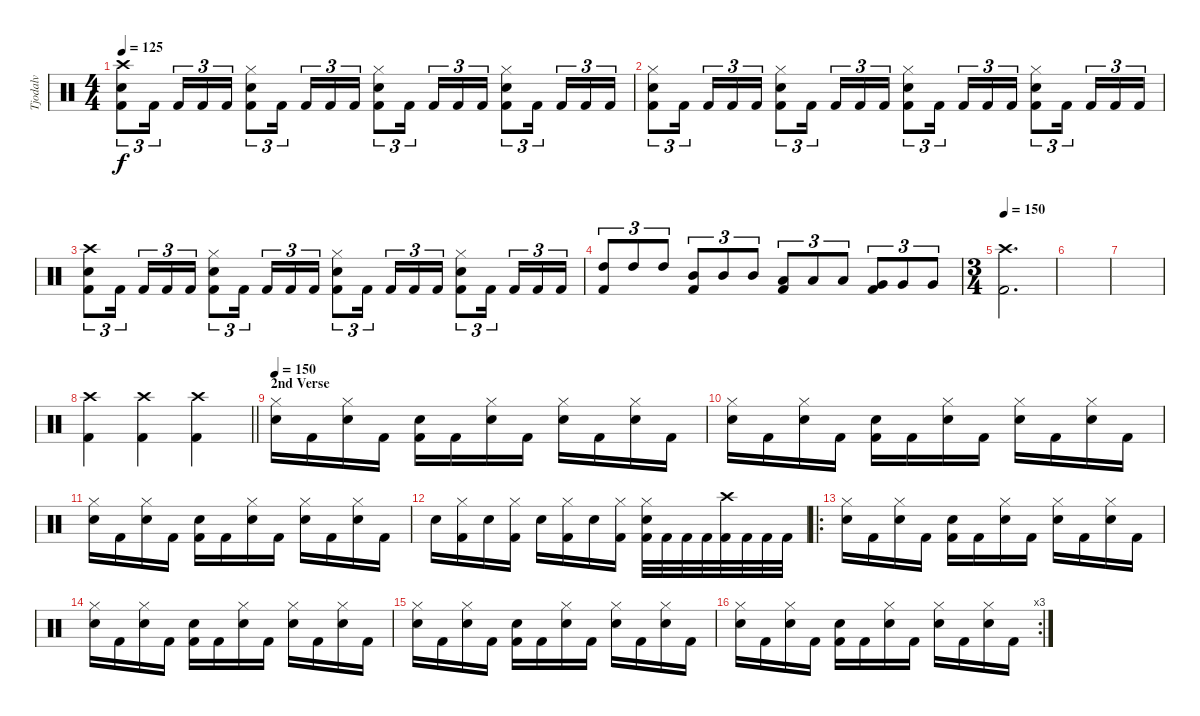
\track ("Tjodalv" "Tjodalv") {instrument percussion}
\staff {score}
\articulation defaults
\ts (4 4)
\tempo 125
\clef neutral
\ks c
("Snare (hit) 2" "Kick (hit) 2" "Crash high (hit)").8{tu (3 2) dy f} "Kick (hit) 2".16{tu (3 2)} "Kick (hit) 2".16{tu (3 2)} "Kick (hit) 2".16{tu (3 2)} "Kick (hit) 2".16{tu (3 2)} ("Snare (hit) 2" "Kick (hit) 2" "Hi-Hat (closed)").8{tu (3 2)} "Kick (hit) 2".16{tu (3 2)} "Kick (hit) 2".16{tu (3 2)} "Kick (hit) 2".16{tu (3 2)} "Kick (hit) 2".16{tu (3 2)} ("Snare (hit) 2" "Kick (hit) 2" "Hi-Hat (closed)").8{tu (3 2)} "Kick (hit) 2".16{tu (3 2)} "Kick (hit) 2".16{tu (3 2)} "Kick (hit) 2".16{tu (3 2)} "Kick (hit) 2".16{tu (3 2)} ("Snare (hit) 2" "Kick (hit) 2" "Hi-Hat (closed)").8{tu (3 2)} "Kick (hit) 2".16{tu (3 2)} "Kick (hit) 2".16{tu (3 2)} "Kick (hit) 2".16{tu (3 2)} "Kick (hit) 2".16{tu (3 2)} |
("Snare (hit) 2" "Kick (hit) 2" "Hi-Hat (closed)").8{tu (3 2)} "Kick (hit) 2".16{tu (3 2)} "Kick (hit) 2".16{tu (3 2)} "Kick (hit) 2".16{tu (3 2)} "Kick (hit) 2".16{tu (3 2)} ("Snare (hit) 2" "Kick (hit) 2" "Hi-Hat (closed)").8{tu (3 2)} "Kick (hit) 2".16{tu (3 2)} "Kick (hit) 2".16{tu (3 2)} "Kick (hit) 2".16{tu (3 2)} "Kick (hit) 2".16{tu (3 2)} ("Snare (hit) 2" "Kick (hit) 2" "Hi-Hat (closed)").8{tu (3 2)} "Kick (hit) 2".16{tu (3 2)} "Kick (hit) 2".16{tu (3 2)} "Kick (hit) 2".16{tu (3 2)} "Kick (hit) 2".16{tu (3 2)} ("Snare (hit) 2" "Kick (hit) 2" "Hi-Hat (closed)").8{tu (3 2)} "Kick (hit) 2".16{tu (3 2)} "Kick (hit) 2".16{tu (3 2)} "Kick (hit) 2".16{tu (3 2)} "Kick (hit) 2".16{tu (3 2)} |
("Snare (hit) 2" "Kick (hit) 2" "Crash high (hit)").8{tu (3 2)} "Kick (hit) 2".16{tu (3 2)} "Kick (hit) 2".16{tu (3 2)} "Kick (hit) 2".16{tu (3 2)} "Kick (hit) 2".16{tu (3 2)} ("Snare (hit) 2" "Kick (hit) 2" "Hi-Hat (closed)").8{tu (3 2)} "Kick (hit) 2".16{tu (3 2)} "Kick (hit) 2".16{tu (3 2)} "Kick (hit) 2".16{tu (3 2)} "Kick (hit) 2".16{tu (3 2)} ("Snare (hit) 2" "Kick (hit) 2" "Hi-Hat (closed)").8{tu (3 2)} "Kick (hit) 2".16{tu (3 2)} "Kick (hit) 2".16{tu (3 2)} "Kick (hit) 2".16{tu (3 2)} "Kick (hit) 2".16{tu (3 2)} ("Snare (hit) 2" "Kick (hit) 2" "Hi-Hat (closed)").8{tu (3 2)} "Kick (hit) 2".16{tu (3 2)} "Kick (hit) 2".16{tu (3 2)} "Kick (hit) 2".16{tu (3 2)} "Kick (hit) 2".16{tu (3 2)} |
("High Tom (hit)" "Kick (hit) 2").8{tu (3 2)} "High Tom (hit)".8{tu (3 2)} "High Tom (hit)".8{tu (3 2)} ("Mid Tom (hit)" "Kick (hit) 2").8{tu (3 2)} "Mid Tom (hit)".8{tu (3 2)} "Mid Tom (hit)".8{tu (3 2)} ("Low Tom (hit)" "Kick (hit) 2").8{tu (3 2)} "Low Tom (hit)".8{tu (3 2)} "Low Tom (hit)".8{tu (3 2)} ("Very Low Tom (hit)" "Kick (hit) 2").8{tu (3 2)} "Very Low Tom (hit)".8{tu (3 2)} "Very Low Tom (hit)".8{tu (3 2)} |
\ts (3 4)
\tempo 150
("Crash high (hit)" "Kick (hit) 2").2{d} |
|
|
\barLineRight lightlight
("Kick (hit) 2" "Crash high (hit)").4 ("Kick (hit) 2" "Crash high (hit)").4 ("Kick (hit) 2" "Crash high (hit)").4 |
\section ("" "2nd Verse")
\tempo 150
("Snare (hit) 2" "Hi-Hat (closed)").16 "Kick (hit) 2".16 ("Snare (hit) 2" "Hi-Hat (closed)").16 "Kick (hit) 2".16 ("Snare (hit) 2" "Kick (hit) 2").16 "Kick (hit) 2".16 ("Snare (hit) 2" "Hi-Hat (closed)").16 "Kick (hit) 2".16 ("Snare (hit) 2" "Hi-Hat (closed)").16 "Kick (hit) 2".16 ("Snare (hit) 2" "Hi-Hat (closed)").16 "Kick (hit) 2".16 |
("Snare (hit) 2" "Hi-Hat (closed)").16 "Kick (hit) 2".16 ("Snare (hit) 2" "Hi-Hat (closed)").16 "Kick (hit) 2".16 ("Snare (hit) 2" "Kick (hit) 2").16 "Kick (hit) 2".16 ("Snare (hit) 2" "Hi-Hat (closed)").16 "Kick (hit) 2".16 ("Snare (hit) 2" "Hi-Hat (closed)").16 "Kick (hit) 2".16 ("Snare (hit) 2" "Hi-Hat (closed)").16 "Kick (hit) 2".16 |
("Snare (hit) 2" "Hi-Hat (closed)").16 "Kick (hit) 2".16 ("Snare (hit) 2" "Hi-Hat (closed)").16 "Kick (hit) 2".16 ("Snare (hit) 2" "Kick (hit) 2").16 "Kick (hit) 2".16 ("Snare (hit) 2" "Hi-Hat (closed)").16 "Kick (hit) 2".16 ("Snare (hit) 2" "Hi-Hat (closed)").16 "Kick (hit) 2".16 ("Snare (hit) 2" "Hi-Hat (closed)").16 "Kick (hit) 2".16 |
"Snare (hit) 2".16 ("Kick (hit) 2" "Hi-Hat (closed)").16 "Snare (hit) 2".16 ("Kick (hit) 2" "Hi-Hat (closed)").16 "Snare (hit) 2".16 ("Kick (hit) 2" "Hi-Hat (closed)").16 "Snare (hit) 2".16 ("Kick (hit) 2" "Hi-Hat (closed)").16 ("Kick (hit) 2" "Snare (hit) 2" "Hi-Hat (closed)").32 "Kick (hit) 2".32 "Kick (hit) 2".32 "Kick (hit) 2".32 ("Kick (hit) 2" "Crash high (hit)").32 "Kick (hit) 2".32 "Kick (hit) 2".32 "Kick (hit) 2".32 |
\ro
("Snare (hit) 2" "Hi-Hat (closed)").16 "Kick (hit) 2".16 ("Snare (hit) 2" "Hi-Hat (closed)").16 "Kick (hit) 2".16 ("Snare (hit) 2" "Kick (hit) 2").16 "Kick (hit) 2".16 ("Snare (hit) 2" "Hi-Hat (closed)").16 "Kick (hit) 2".16 ("Snare (hit) 2" "Hi-Hat (closed)").16 "Kick (hit) 2".16 ("Snare (hit) 2" "Hi-Hat (closed)").16 "Kick (hit) 2".16 |
("Snare (hit) 2" "Hi-Hat (closed)").16 "Kick (hit) 2".16 ("Snare (hit) 2" "Hi-Hat (closed)").16 "Kick (hit) 2".16 ("Snare (hit) 2" "Kick (hit) 2").16 "Kick (hit) 2".16 ("Snare (hit) 2" "Hi-Hat (closed)").16 "Kick (hit) 2".16 ("Snare (hit) 2" "Hi-Hat (closed)").16 "Kick (hit) 2".16 ("Snare (hit) 2" "Hi-Hat (closed)").16 "Kick (hit) 2".16 |
("Snare (hit) 2" "Hi-Hat (closed)").16 "Kick (hit) 2".16 ("Snare (hit) 2" "Hi-Hat (closed)").16 "Kick (hit) 2".16 ("Snare (hit) 2" "Kick (hit) 2").16 "Kick (hit) 2".16 ("Snare (hit) 2" "Hi-Hat (closed)").16 "Kick (hit) 2".16 ("Snare (hit) 2" "Hi-Hat (closed)").16 "Kick (hit) 2".16 ("Snare (hit) 2" "Hi-Hat (closed)").16 "Kick (hit) 2".16 |
\rc 3
("Snare (hit) 2" "Hi-Hat (closed)").16 "Kick (hit) 2".16 ("Snare (hit) 2" "Hi-Hat (closed)").16 "Kick (hit) 2".16 ("Snare (hit) 2" "Kick (hit) 2").16 "Kick (hit) 2".16 ("Snare (hit) 2" "Hi-Hat (closed)").16 "Kick (hit) 2".16 ("Snare (hit) 2" "Hi-Hat (closed)").16 "Kick (hit) 2".16 ("Snare (hit) 2" "Hi-Hat (closed)").16 "Kick (hit) 2".16
